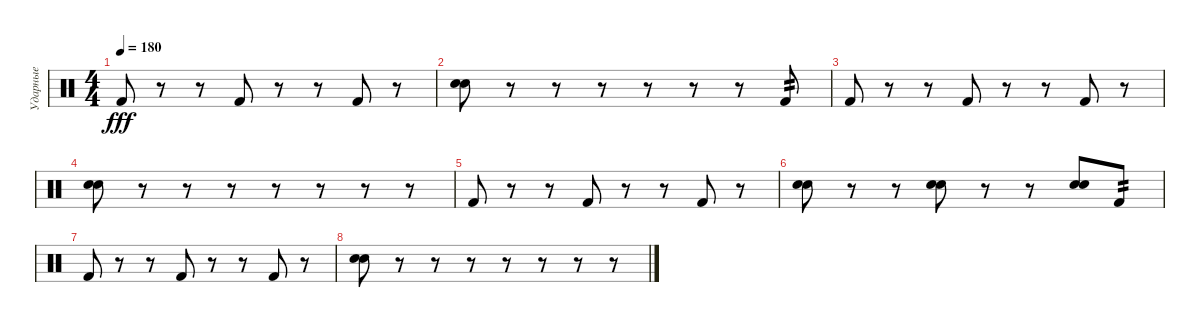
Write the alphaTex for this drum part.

\track ("Ударные" "Ударные") {instrument percussion}
\staff {score}
\articulation defaults
\ts (4 4)
\tempo 180
\clef neutral
\ks c "Kick (hit) 2".8{dy fff}
r.8 r.8 "Kick (hit) 2".8 r.8 r.8 "Kick (hit) 2".8 r.8 |
("Electric Snare (hit)" "Snare (hit) 2").8 r.8 r.8 r.8 r.8 r.8 r.8 "Kick (hit) 2".8{tp 2} |
"Kick (hit) 2".8 r.8 r.8 "Kick (hit) 2".8 r.8 r.8 "Kick (hit) 2".8 r.8 |
("Electric Snare (hit)" "Snare (hit) 2").8 r.8 r.8 r.8 r.8 r.8 r.8 r.8 |
"Kick (hit) 2".8 r.8 r.8 "Kick (hit) 2".8 r.8 r.8 "Kick (hit) 2".8 r.8 |
("Electric Snare (hit)" "Snare (hit) 2").8 r.8 r.8 ("Electric Snare (hit)" "Snare (hit) 2").8 r.8 r.8 ("Electric Snare (hit)" "Snare (hit) 2").8 "Kick (hit) 2".8{tp 2} |
"Kick (hit) 2".8 r.8 r.8 "Kick (hit) 2".8 r.8 r.8 "Kick (hit) 2".8 r.8 |
("Electric Snare (hit)" "Snare (hit) 2").8 r.8 r.8 r.8 r.8 r.8 r.8 r.8
